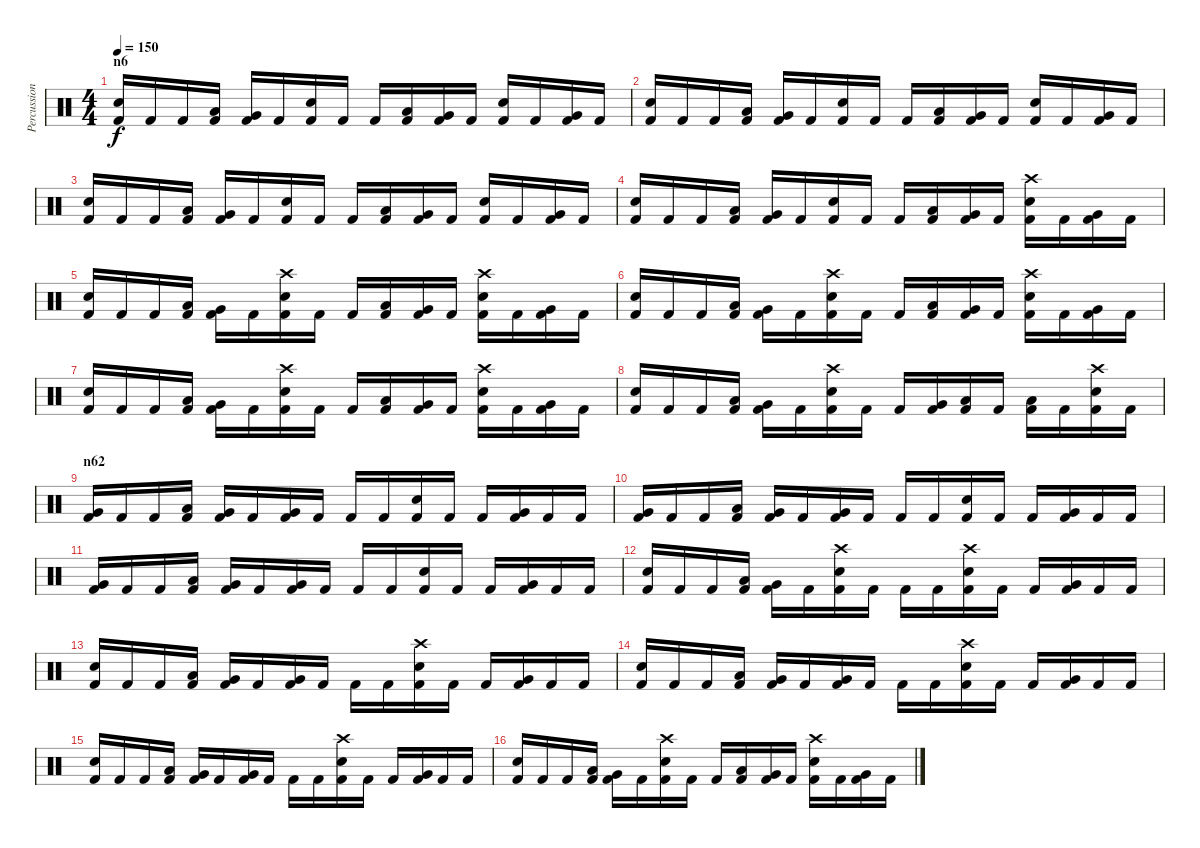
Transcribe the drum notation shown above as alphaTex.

\track ("Percussion" "Percussion") {instrument percussion}
\staff {score}
\articulation defaults
\ts (4 4)
\section ("" "n6")
\tempo 150
\clef neutral
\ks c
("Kick (hit) 2" "Electric Snare (hit)").16{dy f} "Kick (hit) 2".16 "Kick (hit) 2".16 ("Kick (hit) 2" "Low Floor Tom (hit)").16 ("Kick (hit) 2" "Very Low Tom (hit)").16 "Kick (hit) 2".16 ("Kick (hit) 2" "Electric Snare (hit)").16 "Kick (hit) 2".16 "Kick (hit) 2".16 ("Kick (hit) 2" "Low Floor Tom (hit)").16 ("Kick (hit) 2" "Very Low Tom (hit)").16 "Kick (hit) 2".16 ("Kick (hit) 2" "Electric Snare (hit)").16 "Kick (hit) 2".16 ("Kick (hit) 2" "Very Low Tom (hit)").16 "Kick (hit) 2".16 |
("Kick (hit) 2" "Electric Snare (hit)").16 "Kick (hit) 2".16 "Kick (hit) 2".16 ("Kick (hit) 2" "Low Floor Tom (hit)").16 ("Kick (hit) 2" "Very Low Tom (hit)").16 "Kick (hit) 2".16 ("Kick (hit) 2" "Electric Snare (hit)").16 "Kick (hit) 2".16 "Kick (hit) 2".16 ("Kick (hit) 2" "Low Floor Tom (hit)").16 ("Kick (hit) 2" "Very Low Tom (hit)").16 "Kick (hit) 2".16 ("Kick (hit) 2" "Electric Snare (hit)").16 "Kick (hit) 2".16 ("Kick (hit) 2" "Very Low Tom (hit)").16 "Kick (hit) 2".16 |
("Kick (hit) 2" "Electric Snare (hit)").16 "Kick (hit) 2".16 "Kick (hit) 2".16 ("Kick (hit) 2" "Low Floor Tom (hit)").16 ("Kick (hit) 2" "Very Low Tom (hit)").16 "Kick (hit) 2".16 ("Kick (hit) 2" "Electric Snare (hit)").16 "Kick (hit) 2".16 "Kick (hit) 2".16 ("Kick (hit) 2" "Low Floor Tom (hit)").16 ("Kick (hit) 2" "Very Low Tom (hit)").16 "Kick (hit) 2".16 ("Kick (hit) 2" "Electric Snare (hit)").16 "Kick (hit) 2".16 ("Kick (hit) 2" "Very Low Tom (hit)").16 "Kick (hit) 2".16 |
("Kick (hit) 2" "Electric Snare (hit)").16 "Kick (hit) 2".16 "Kick (hit) 2".16 ("Kick (hit) 2" "Low Floor Tom (hit)").16 ("Kick (hit) 2" "Very Low Tom (hit)").16 "Kick (hit) 2".16 ("Kick (hit) 2" "Electric Snare (hit)").16 "Kick (hit) 2".16 "Kick (hit) 2".16 ("Kick (hit) 2" "Low Floor Tom (hit)").16 ("Kick (hit) 2" "Very Low Tom (hit)").16 "Kick (hit) 2".16 ("Kick (hit) 2" "Electric Snare (hit)" "Crash high (hit)").16 "Kick (hit) 2".16 ("Kick (hit) 2" "Very Low Tom (hit)").16 "Kick (hit) 2".16 |
("Kick (hit) 2" "Electric Snare (hit)").16 "Kick (hit) 2".16 "Kick (hit) 2".16 ("Kick (hit) 2" "Low Floor Tom (hit)").16 ("Kick (hit) 2" "Very Low Tom (hit)").16 "Kick (hit) 2".16 ("Kick (hit) 2" "Electric Snare (hit)" "Crash high (hit)").16 "Kick (hit) 2".16 "Kick (hit) 2".16 ("Kick (hit) 2" "Low Floor Tom (hit)").16 ("Kick (hit) 2" "Very Low Tom (hit)").16 "Kick (hit) 2".16 ("Kick (hit) 2" "Electric Snare (hit)" "Crash high (hit)").16 "Kick (hit) 2".16 ("Kick (hit) 2" "Very Low Tom (hit)").16 "Kick (hit) 2".16 |
("Kick (hit) 2" "Electric Snare (hit)").16 "Kick (hit) 2".16 "Kick (hit) 2".16 ("Kick (hit) 2" "Low Floor Tom (hit)").16 ("Kick (hit) 2" "Very Low Tom (hit)").16 "Kick (hit) 2".16 ("Kick (hit) 2" "Electric Snare (hit)" "Crash high (hit)").16 "Kick (hit) 2".16 "Kick (hit) 2".16 ("Kick (hit) 2" "Low Floor Tom (hit)").16 ("Kick (hit) 2" "Very Low Tom (hit)").16 "Kick (hit) 2".16 ("Kick (hit) 2" "Electric Snare (hit)" "Crash high (hit)").16 "Kick (hit) 2".16 ("Kick (hit) 2" "Very Low Tom (hit)").16 "Kick (hit) 2".16 |
("Kick (hit) 2" "Electric Snare (hit)").16 "Kick (hit) 2".16 "Kick (hit) 2".16 ("Kick (hit) 2" "Low Floor Tom (hit)").16 ("Kick (hit) 2" "Very Low Tom (hit)").16 "Kick (hit) 2".16 ("Kick (hit) 2" "Electric Snare (hit)" "Crash high (hit)").16 "Kick (hit) 2".16 "Kick (hit) 2".16 ("Kick (hit) 2" "Low Floor Tom (hit)").16 ("Kick (hit) 2" "Very Low Tom (hit)").16 "Kick (hit) 2".16 ("Kick (hit) 2" "Electric Snare (hit)" "Crash high (hit)").16 "Kick (hit) 2".16 ("Kick (hit) 2" "Very Low Tom (hit)").16 "Kick (hit) 2".16 |
("Kick (hit) 2" "Electric Snare (hit)").16 "Kick (hit) 2".16 "Kick (hit) 2".16 ("Kick (hit) 2" "Low Floor Tom (hit)").16 ("Kick (hit) 2" "Very Low Tom (hit)").16 "Kick (hit) 2".16 ("Kick (hit) 2" "Electric Snare (hit)" "Crash high (hit)").16 "Kick (hit) 2".16 "Kick (hit) 2".16 ("Kick (hit) 2" "Very Low Tom (hit)").16 ("Kick (hit) 2" "Low Floor Tom (hit)").16 "Kick (hit) 2".16 ("Kick (hit) 2" "Low Floor Tom (hit)").16 "Kick (hit) 2".16 ("Kick (hit) 2" "Electric Snare (hit)" "Crash high (hit)").16 "Kick (hit) 2".16 |
\section ("" "n62")
("Kick (hit) 2" "Very Low Tom (hit)").16 "Kick (hit) 2".16 "Kick (hit) 2".16 ("Kick (hit) 2" "Low Floor Tom (hit)").16 ("Kick (hit) 2" "Very Low Tom (hit)").16 "Kick (hit) 2".16 ("Kick (hit) 2" "Very Low Tom (hit)").16 "Kick (hit) 2".16 "Kick (hit) 2".16 "Kick (hit) 2".16 ("Kick (hit) 2" "Electric Snare (hit)").16 "Kick (hit) 2".16 "Kick (hit) 2".16 ("Kick (hit) 2" "Very Low Tom (hit)").16 "Kick (hit) 2".16 "Kick (hit) 2".16 |
("Kick (hit) 2" "Very Low Tom (hit)").16 "Kick (hit) 2".16 "Kick (hit) 2".16 ("Kick (hit) 2" "Low Floor Tom (hit)").16 ("Kick (hit) 2" "Very Low Tom (hit)").16 "Kick (hit) 2".16 ("Kick (hit) 2" "Very Low Tom (hit)").16 "Kick (hit) 2".16 "Kick (hit) 2".16 "Kick (hit) 2".16 ("Kick (hit) 2" "Electric Snare (hit)").16 "Kick (hit) 2".16 "Kick (hit) 2".16 ("Kick (hit) 2" "Very Low Tom (hit)").16 "Kick (hit) 2".16 "Kick (hit) 2".16 |
("Kick (hit) 2" "Very Low Tom (hit)").16 "Kick (hit) 2".16 "Kick (hit) 2".16 ("Kick (hit) 2" "Low Floor Tom (hit)").16 ("Kick (hit) 2" "Very Low Tom (hit)").16 "Kick (hit) 2".16 ("Kick (hit) 2" "Very Low Tom (hit)").16 "Kick (hit) 2".16 "Kick (hit) 2".16 "Kick (hit) 2".16 ("Kick (hit) 2" "Electric Snare (hit)").16 "Kick (hit) 2".16 "Kick (hit) 2".16 ("Kick (hit) 2" "Very Low Tom (hit)").16 "Kick (hit) 2".16 "Kick (hit) 2".16 |
("Kick (hit) 2" "Electric Snare (hit)").16 "Kick (hit) 2".16 "Kick (hit) 2".16 ("Kick (hit) 2" "Low Floor Tom (hit)").16 ("Kick (hit) 2" "Very Low Tom (hit)").16 "Kick (hit) 2".16 ("Kick (hit) 2" "Electric Snare (hit)" "Crash high (hit)").16 "Kick (hit) 2".16 "Kick (hit) 2".16 "Kick (hit) 2".16 ("Kick (hit) 2" "Electric Snare (hit)" "Crash high (hit)").16 "Kick (hit) 2".16 "Kick (hit) 2".16 ("Kick (hit) 2" "Very Low Tom (hit)").16 "Kick (hit) 2".16 "Kick (hit) 2".16 |
("Kick (hit) 2" "Electric Snare (hit)").16 "Kick (hit) 2".16 "Kick (hit) 2".16 ("Kick (hit) 2" "Low Floor Tom (hit)").16 ("Kick (hit) 2" "Very Low Tom (hit)").16 "Kick (hit) 2".16 ("Kick (hit) 2" "Very Low Tom (hit)").16 "Kick (hit) 2".16 "Kick (hit) 2".16 "Kick (hit) 2".16 ("Kick (hit) 2" "Electric Snare (hit)" "Crash high (hit)").16 "Kick (hit) 2".16 "Kick (hit) 2".16 ("Kick (hit) 2" "Very Low Tom (hit)").16 "Kick (hit) 2".16 "Kick (hit) 2".16 |
("Kick (hit) 2" "Electric Snare (hit)").16 "Kick (hit) 2".16 "Kick (hit) 2".16 ("Kick (hit) 2" "Low Floor Tom (hit)").16 ("Kick (hit) 2" "Very Low Tom (hit)").16 "Kick (hit) 2".16 ("Kick (hit) 2" "Very Low Tom (hit)").16 "Kick (hit) 2".16 "Kick (hit) 2".16 "Kick (hit) 2".16 ("Kick (hit) 2" "Electric Snare (hit)" "Crash high (hit)").16 "Kick (hit) 2".16 "Kick (hit) 2".16 ("Kick (hit) 2" "Very Low Tom (hit)").16 "Kick (hit) 2".16 "Kick (hit) 2".16 |
("Kick (hit) 2" "Electric Snare (hit)").16 "Kick (hit) 2".16 "Kick (hit) 2".16 ("Kick (hit) 2" "Low Floor Tom (hit)").16 ("Kick (hit) 2" "Very Low Tom (hit)").16 "Kick (hit) 2".16 ("Kick (hit) 2" "Very Low Tom (hit)").16 "Kick (hit) 2".16 "Kick (hit) 2".16 "Kick (hit) 2".16 ("Kick (hit) 2" "Electric Snare (hit)" "Crash high (hit)").16 "Kick (hit) 2".16 "Kick (hit) 2".16 ("Kick (hit) 2" "Very Low Tom (hit)").16 "Kick (hit) 2".16 "Kick (hit) 2".16 |
("Kick (hit) 2" "Electric Snare (hit)").16 "Kick (hit) 2".16 "Kick (hit) 2".16 ("Kick (hit) 2" "Low Floor Tom (hit)").16 ("Kick (hit) 2" "Very Low Tom (hit)").16 "Kick (hit) 2".16 ("Kick (hit) 2" "Electric Snare (hit)" "Crash high (hit)").16 "Kick (hit) 2".16 "Kick (hit) 2".16 ("Kick (hit) 2" "Low Floor Tom (hit)").16 ("Kick (hit) 2" "Very Low Tom (hit)").16 "Kick (hit) 2".16 ("Kick (hit) 2" "Electric Snare (hit)" "Crash high (hit)").16 "Kick (hit) 2".16 ("Kick (hit) 2" "Very Low Tom (hit)").16 "Kick (hit) 2".16
